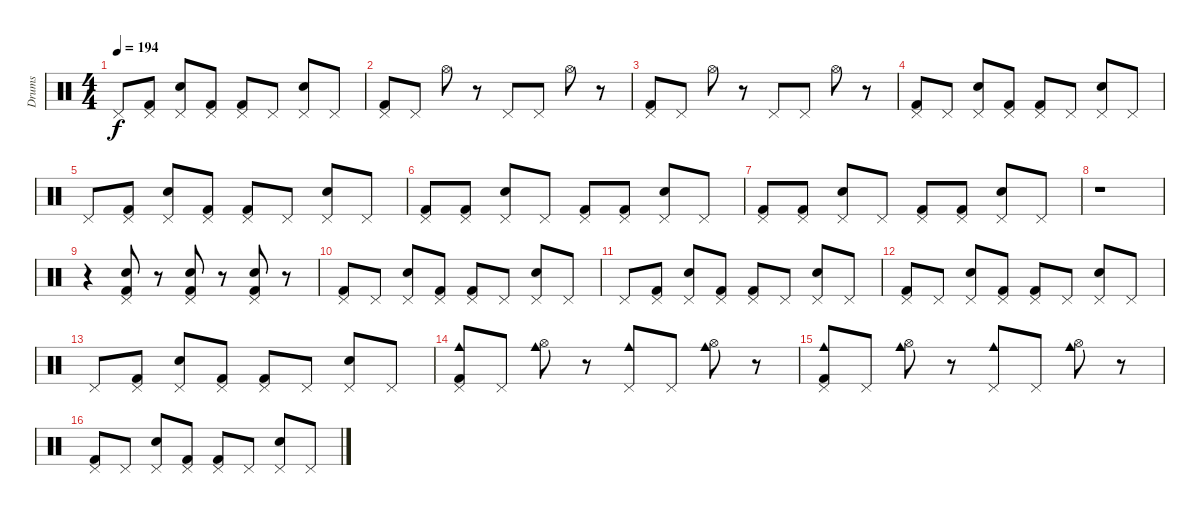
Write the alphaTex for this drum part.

\track ("Drums" "Drums") {instrument percussion}
\staff {score}
\articulation defaults
\ts (4 4)
\tempo 194
\clef neutral
\ks c "Pedal Hi-Hat (hit)".8{dy f}
("Kick (hit) 2" "Pedal Hi-Hat (hit)").8 ("Electric Snare (hit)" "Pedal Hi-Hat (hit)").8 ("Kick (hit) 2" "Pedal Hi-Hat (hit)").8 ("Pedal Hi-Hat (hit)" "Kick (hit) 2").8 "Pedal Hi-Hat (hit)".8 ("Electric Snare (hit)" "Pedal Hi-Hat (hit)").8 "Pedal Hi-Hat (hit)".8 |
("Kick (hit) 2" "Pedal Hi-Hat (hit)").8 "Pedal Hi-Hat (hit)".8 "Hi-Hat (open)".8 r.8 "Pedal Hi-Hat (hit)".8 "Pedal Hi-Hat (hit)".8 "Hi-Hat (open)".8 r.8 |
("Pedal Hi-Hat (hit)" "Kick (hit) 2").8 "Pedal Hi-Hat (hit)".8 "Hi-Hat (open)".8 r.8 "Pedal Hi-Hat (hit)".8 "Pedal Hi-Hat (hit)".8 "Hi-Hat (open)".8 r.8 |
("Pedal Hi-Hat (hit)" "Kick (hit) 2").8 "Pedal Hi-Hat (hit)".8 ("Pedal Hi-Hat (hit)" "Electric Snare (hit)").8 ("Kick (hit) 2" "Pedal Hi-Hat (hit)").8 ("Pedal Hi-Hat (hit)" "Kick (hit) 2").8 "Pedal Hi-Hat (hit)".8 ("Electric Snare (hit)" "Pedal Hi-Hat (hit)").8 "Pedal Hi-Hat (hit)".8 |
"Pedal Hi-Hat (hit)".8 ("Pedal Hi-Hat (hit)" "Kick (hit) 2").8 ("Pedal Hi-Hat (hit)" "Electric Snare (hit)").8 ("Kick (hit) 2" "Pedal Hi-Hat (hit)").8 ("Kick (hit) 2" "Pedal Hi-Hat (hit)").8 "Pedal Hi-Hat (hit)".8 ("Pedal Hi-Hat (hit)" "Electric Snare (hit)").8 "Pedal Hi-Hat (hit)".8 |
("Kick (hit) 2" "Pedal Hi-Hat (hit)").8 ("Kick (hit) 2" "Pedal Hi-Hat (hit)").8 ("Electric Snare (hit)" "Pedal Hi-Hat (hit)").8 "Pedal Hi-Hat (hit)".8 ("Kick (hit) 2" "Pedal Hi-Hat (hit)").8 ("Kick (hit) 2" "Pedal Hi-Hat (hit)").8 ("Pedal Hi-Hat (hit)" "Electric Snare (hit)").8 "Pedal Hi-Hat (hit)".8 |
("Pedal Hi-Hat (hit)" "Kick (hit) 2").8 ("Pedal Hi-Hat (hit)" "Kick (hit) 2").8 ("Electric Snare (hit)" "Pedal Hi-Hat (hit)").8 "Pedal Hi-Hat (hit)".8 ("Pedal Hi-Hat (hit)" "Kick (hit) 2").8 ("Pedal Hi-Hat (hit)" "Kick (hit) 2").8 ("Pedal Hi-Hat (hit)" "Electric Snare (hit)").8 "Pedal Hi-Hat (hit)".8 |
r.1 |
r.4 ("Electric Snare (hit)" "Pedal Hi-Hat (hit)" "Kick (hit) 2").8 r.8 ("Electric Snare (hit)" "Pedal Hi-Hat (hit)" "Kick (hit) 2").8 r.8 ("Kick (hit) 2" "Pedal Hi-Hat (hit)" "Electric Snare (hit)").8 r.8 |
("Pedal Hi-Hat (hit)" "Kick (hit) 2").8 "Pedal Hi-Hat (hit)".8 ("Pedal Hi-Hat (hit)" "Electric Snare (hit)").8 ("Pedal Hi-Hat (hit)" "Kick (hit) 2").8 ("Pedal Hi-Hat (hit)" "Kick (hit) 2").8 "Pedal Hi-Hat (hit)".8 ("Pedal Hi-Hat (hit)" "Electric Snare (hit)").8 "Pedal Hi-Hat (hit)".8 |
"Pedal Hi-Hat (hit)".8 ("Pedal Hi-Hat (hit)" "Kick (hit) 2").8 ("Electric Snare (hit)" "Pedal Hi-Hat (hit)").8 ("Pedal Hi-Hat (hit)" "Kick (hit) 2").8 ("Kick (hit) 2" "Pedal Hi-Hat (hit)").8 "Pedal Hi-Hat (hit)".8 ("Pedal Hi-Hat (hit)" "Electric Snare (hit)").8 "Pedal Hi-Hat (hit)".8 |
("Kick (hit) 2" "Pedal Hi-Hat (hit)").8 "Pedal Hi-Hat (hit)".8 ("Pedal Hi-Hat (hit)" "Electric Snare (hit)").8 ("Kick (hit) 2" "Pedal Hi-Hat (hit)").8 ("Kick (hit) 2" "Pedal Hi-Hat (hit)").8 "Pedal Hi-Hat (hit)".8 ("Electric Snare (hit)" "Pedal Hi-Hat (hit)").8 "Pedal Hi-Hat (hit)".8 |
"Pedal Hi-Hat (hit)".8 ("Kick (hit) 2" "Pedal Hi-Hat (hit)").8 ("Electric Snare (hit)" "Pedal Hi-Hat (hit)").8 ("Kick (hit) 2" "Pedal Hi-Hat (hit)").8 ("Kick (hit) 2" "Pedal Hi-Hat (hit)").8 "Pedal Hi-Hat (hit)".8 ("Electric Snare (hit)" "Pedal Hi-Hat (hit)").8 "Pedal Hi-Hat (hit)".8 |
("Pedal Hi-Hat (hit)" "Kick (hit) 2" "Cowbell medium (hit)").8 "Pedal Hi-Hat (hit)".8 ("Hi-Hat (open)" "Cowbell medium (hit)").8 r.8 ("Cowbell medium (hit)" "Pedal Hi-Hat (hit)").8 "Pedal Hi-Hat (hit)".8 ("Hi-Hat (open)" "Cowbell medium (hit)").8 r.8 |
("Cowbell medium (hit)" "Pedal Hi-Hat (hit)" "Kick (hit) 2").8 "Pedal Hi-Hat (hit)".8 ("Cowbell medium (hit)" "Hi-Hat (open)").8 r.8 ("Cowbell medium (hit)" "Pedal Hi-Hat (hit)").8 "Pedal Hi-Hat (hit)".8 ("Cowbell medium (hit)" "Hi-Hat (open)").8 r.8 |
("Kick (hit) 2" "Pedal Hi-Hat (hit)").8 "Pedal Hi-Hat (hit)".8 ("Pedal Hi-Hat (hit)" "Electric Snare (hit)").8 ("Kick (hit) 2" "Pedal Hi-Hat (hit)").8 ("Kick (hit) 2" "Pedal Hi-Hat (hit)").8 "Pedal Hi-Hat (hit)".8 ("Electric Snare (hit)" "Pedal Hi-Hat (hit)").8 "Pedal Hi-Hat (hit)".8
